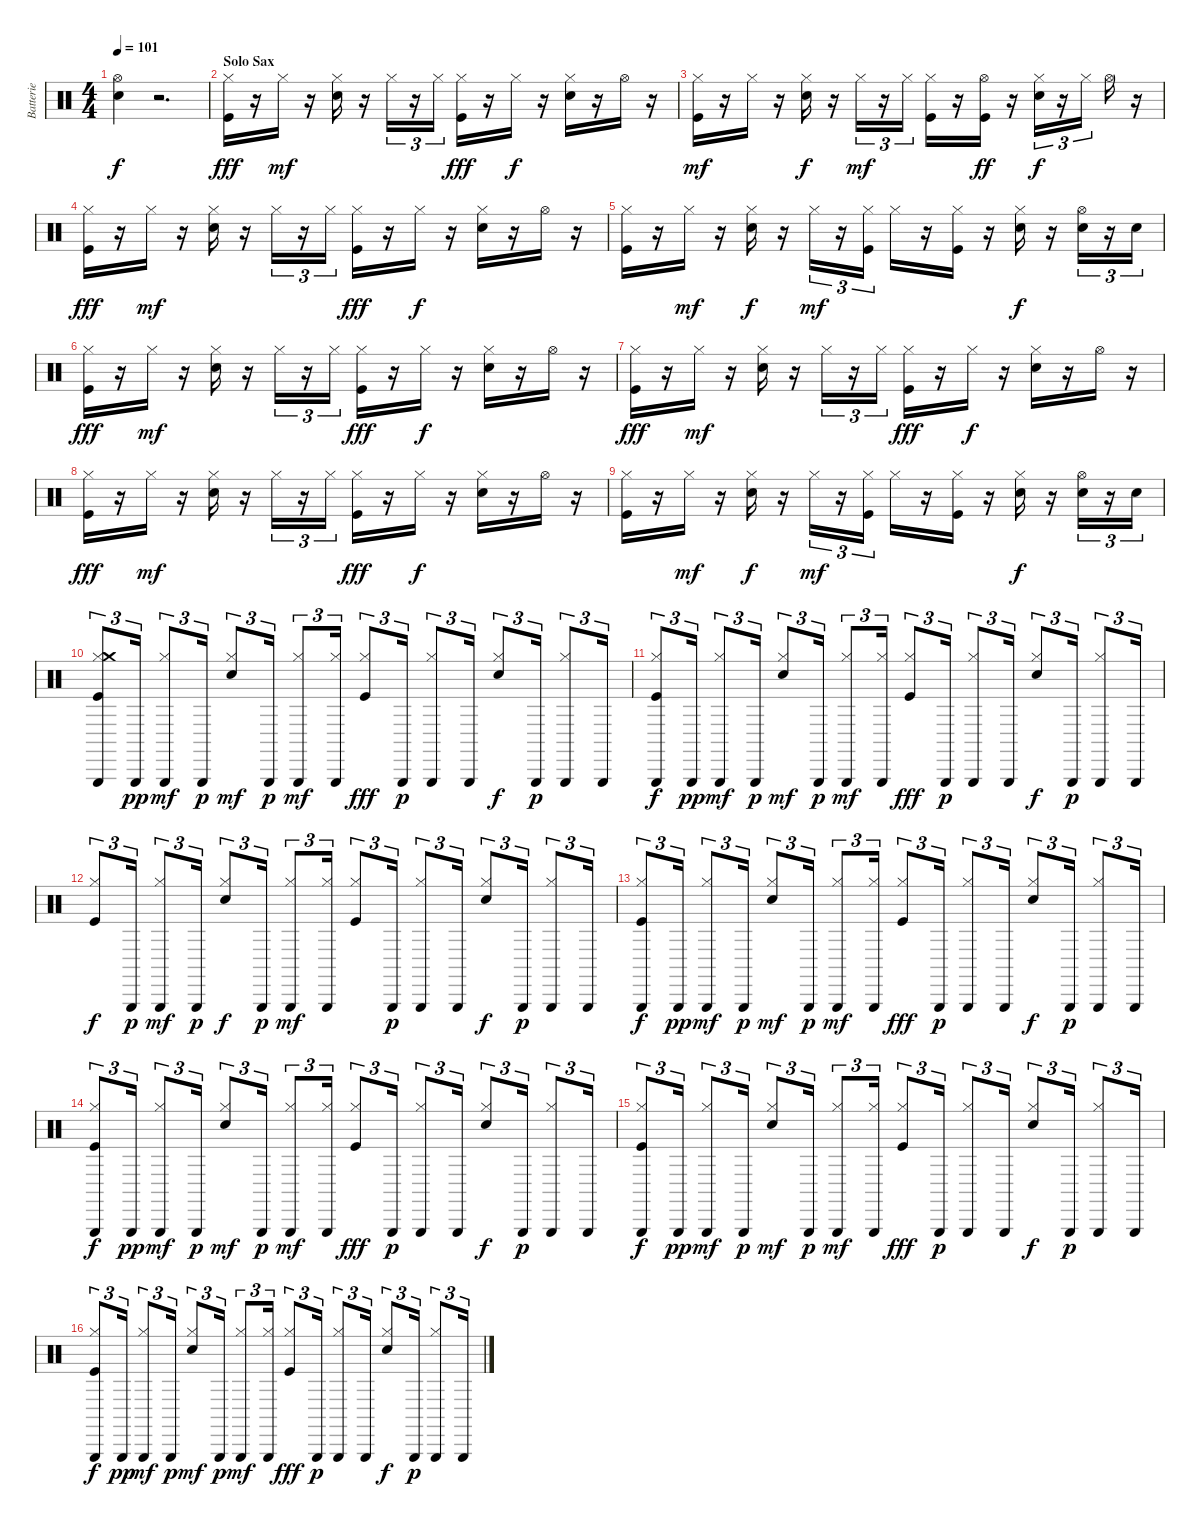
\track ("Batterie" "Batterie") {instrument percussion}
\staff {score}
\articulation defaults
\ts (4 4)
\tempo 101
\clef neutral
\ks c
("Electric Snare (hit)" "Hi-Hat (open)").4{dy f} r.2{d} |
\section ("" "Solo Sax")
("Kick (hit)" "Hi-Hat (closed)").16{dy fff} r.16 "Hi-Hat (closed)".16{dy mf} r.16 ("Electric Snare (hit)" "Hi-Hat (closed)").16 r.16 "Hi-Hat (closed)".16{tu (3 2)} r.16{tu (3 2)} "Hi-Hat (closed)".16{tu (3 2)} ("Kick (hit)" "Hi-Hat (closed)").16{dy fff} r.16 "Hi-Hat (closed)".16{dy f} r.16 ("Electric Snare (hit)" "Hi-Hat (closed)").16 r.16 "Hi-Hat (open)".16 r.16 |
("Kick (hit)" "Hi-Hat (closed)").16{dy mf} r.16 "Hi-Hat (closed)".16 r.16 ("Electric Snare (hit)" "Hi-Hat (closed)").16{dy f} r.16 "Hi-Hat (closed)".16{tu (3 2) dy mf} r.16{tu (3 2)} "Hi-Hat (closed)".16{tu (3 2)} ("Kick (hit)" "Hi-Hat (closed)").16 r.16 ("Hi-Hat (open)" "Kick (hit)").16{dy ff} r.16 ("Electric Snare (hit)" "Hi-Hat (closed)").16{tu (3 2) dy f} r.16{tu (3 2)} "Hi-Hat (closed)".16{tu (3 2)} "Hi-Hat (open)".16 r.16 |
("Kick (hit)" "Hi-Hat (closed)").16{dy fff} r.16 "Hi-Hat (closed)".16{dy mf} r.16 ("Electric Snare (hit)" "Hi-Hat (closed)").16 r.16 "Hi-Hat (closed)".16{tu (3 2)} r.16{tu (3 2)} "Hi-Hat (closed)".16{tu (3 2)} ("Kick (hit)" "Hi-Hat (closed)").16{dy fff} r.16 "Hi-Hat (closed)".16{dy f} r.16 ("Electric Snare (hit)" "Hi-Hat (closed)").16 r.16 "Hi-Hat (open)".16 r.16 |
("Hi-Hat (closed)" "Kick (hit)").16 r.16 "Hi-Hat (closed)".16{dy mf} r.16 ("Electric Snare (hit)" "Hi-Hat (closed)").16{dy f} r.16 "Hi-Hat (closed)".16{tu (3 2) dy mf} r.16{tu (3 2)} ("Kick (hit)" "Hi-Hat (closed)").16{tu (3 2)} "Hi-Hat (closed)".16 r.16 ("Kick (hit)" "Hi-Hat (closed)").16 r.16 ("Electric Snare (hit)" "Hi-Hat (closed)").16{dy f} r.16 ("Electric Snare (hit)" "Hi-Hat (open)").16{tu (3 2)} r.16{tu (3 2)} "Electric Snare (hit)".16{tu (3 2)} |
("Kick (hit)" "Hi-Hat (closed)").16{dy fff} r.16 "Hi-Hat (closed)".16{dy mf} r.16 ("Electric Snare (hit)" "Hi-Hat (closed)").16 r.16 "Hi-Hat (closed)".16{tu (3 2)} r.16{tu (3 2)} "Hi-Hat (closed)".16{tu (3 2)} ("Kick (hit)" "Hi-Hat (closed)").16{dy fff} r.16 "Hi-Hat (closed)".16{dy f} r.16 ("Electric Snare (hit)" "Hi-Hat (closed)").16 r.16 "Hi-Hat (open)".16 r.16 |
("Kick (hit)" "Hi-Hat (closed)").16{dy fff} r.16 "Hi-Hat (closed)".16{dy mf} r.16 ("Electric Snare (hit)" "Hi-Hat (closed)").16 r.16 "Hi-Hat (closed)".16{tu (3 2)} r.16{tu (3 2)} "Hi-Hat (closed)".16{tu (3 2)} ("Kick (hit)" "Hi-Hat (closed)").16{dy fff} r.16 "Hi-Hat (closed)".16{dy f} r.16 ("Electric Snare (hit)" "Hi-Hat (closed)").16 r.16 "Hi-Hat (open)".16 r.16 |
("Kick (hit)" "Hi-Hat (closed)").16{dy fff} r.16 "Hi-Hat (closed)".16{dy mf} r.16 ("Electric Snare (hit)" "Hi-Hat (closed)").16 r.16 "Hi-Hat (closed)".16{tu (3 2)} r.16{tu (3 2)} "Hi-Hat (closed)".16{tu (3 2)} ("Kick (hit)" "Hi-Hat (closed)").16{dy fff} r.16 "Hi-Hat (closed)".16{dy f} r.16 ("Electric Snare (hit)" "Hi-Hat (closed)").16 r.16 "Hi-Hat (open)".16 r.16 |
("Hi-Hat (closed)" "Kick (hit)").16 r.16 "Hi-Hat (closed)".16{dy mf} r.16 ("Electric Snare (hit)" "Hi-Hat (closed)").16{dy f} r.16 "Hi-Hat (closed)".16{tu (3 2) dy mf} r.16{tu (3 2)} ("Kick (hit)" "Hi-Hat (closed)").16{tu (3 2)} "Hi-Hat (closed)".16 r.16 ("Kick (hit)" "Hi-Hat (closed)").16 r.16 ("Electric Snare (hit)" "Hi-Hat (closed)").16{dy f} r.16 ("Electric Snare (hit)" "Hi-Hat (open)").16{tu (3 2)} r.16{tu (3 2)} "Electric Snare (hit)".16{tu (3 2)} |
("Triangle (hit)" "Kick (hit)" "Hi-Hat (closed)" "Crash medium (hit)").8{tu (3 2)} "Triangle (hit)".16{tu (3 2) dy pp} ("Triangle (hit)" "Hi-Hat (closed)").8{tu (3 2) dy mf} "Triangle (hit)".16{tu (3 2) dy p} ("Electric Snare (hit)" "Hi-Hat (closed)").8{tu (3 2) dy mf} "Triangle (hit)".16{tu (3 2) dy p} ("Triangle (hit)" "Hi-Hat (closed)").8{tu (3 2) dy mf} ("Triangle (hit)" "Hi-Hat (closed)").16{tu (3 2)} ("Kick (hit)" "Hi-Hat (closed)").8{tu (3 2) dy fff} "Triangle (hit)".16{tu (3 2) dy p} ("Triangle (hit)" "Hi-Hat (closed)").8{tu (3 2)} "Triangle (hit)".16{tu (3 2)} ("Electric Snare (hit)" "Hi-Hat (closed)").8{tu (3 2) dy f} "Triangle (hit)".16{tu (3 2) dy p} ("Triangle (hit)" "Hi-Hat (closed)").8{tu (3 2)} "Triangle (hit)".16{tu (3 2)} |
("Triangle (hit)" "Kick (hit)" "Hi-Hat (closed)").8{tu (3 2) dy f} "Triangle (hit)".16{tu (3 2) dy pp} ("Triangle (hit)" "Hi-Hat (closed)").8{tu (3 2) dy mf} "Triangle (hit)".16{tu (3 2) dy p} ("Electric Snare (hit)" "Hi-Hat (closed)").8{tu (3 2) dy mf} "Triangle (hit)".16{tu (3 2) dy p} ("Triangle (hit)" "Hi-Hat (closed)").8{tu (3 2) dy mf} ("Triangle (hit)" "Hi-Hat (closed)").16{tu (3 2)} ("Kick (hit)" "Hi-Hat (closed)").8{tu (3 2) dy fff} "Triangle (hit)".16{tu (3 2) dy p} ("Triangle (hit)" "Hi-Hat (closed)").8{tu (3 2)} "Triangle (hit)".16{tu (3 2)} ("Electric Snare (hit)" "Hi-Hat (closed)").8{tu (3 2) dy f} "Triangle (hit)".16{tu (3 2) dy p} ("Triangle (hit)" "Hi-Hat (closed)").8{tu (3 2)} "Triangle (hit)".16{tu (3 2)} |
("Kick (hit)" "Hi-Hat (closed)").8{tu (3 2) dy f} "Triangle (hit)".16{tu (3 2) dy p} ("Triangle (hit)" "Hi-Hat (closed)").8{tu (3 2) dy mf} "Triangle (hit)".16{tu (3 2) dy p} ("Electric Snare (hit)" "Hi-Hat (closed)").8{tu (3 2) dy f} "Triangle (hit)".16{tu (3 2) dy p} ("Triangle (hit)" "Hi-Hat (closed)").8{tu (3 2) dy mf} ("Triangle (hit)" "Hi-Hat (closed)").16{tu (3 2)} ("Kick (hit)" "Hi-Hat (closed)").8{tu (3 2)} "Triangle (hit)".16{tu (3 2) dy p} ("Triangle (hit)" "Hi-Hat (closed)").8{tu (3 2)} "Triangle (hit)".16{tu (3 2)} ("Electric Snare (hit)" "Hi-Hat (closed)").8{tu (3 2) dy f} "Triangle (hit)".16{tu (3 2) dy p} ("Triangle (hit)" "Hi-Hat (closed)").8{tu (3 2)} "Triangle (hit)".16{tu (3 2)} |
("Triangle (hit)" "Kick (hit)" "Hi-Hat (closed)").8{tu (3 2) dy f} "Triangle (hit)".16{tu (3 2) dy pp} ("Triangle (hit)" "Hi-Hat (closed)").8{tu (3 2) dy mf} "Triangle (hit)".16{tu (3 2) dy p} ("Electric Snare (hit)" "Hi-Hat (closed)").8{tu (3 2) dy mf} "Triangle (hit)".16{tu (3 2) dy p} ("Triangle (hit)" "Hi-Hat (closed)").8{tu (3 2) dy mf} ("Triangle (hit)" "Hi-Hat (closed)").16{tu (3 2)} ("Kick (hit)" "Hi-Hat (closed)").8{tu (3 2) dy fff} "Triangle (hit)".16{tu (3 2) dy p} ("Triangle (hit)" "Hi-Hat (closed)").8{tu (3 2)} "Triangle (hit)".16{tu (3 2)} ("Electric Snare (hit)" "Hi-Hat (closed)").8{tu (3 2) dy f} "Triangle (hit)".16{tu (3 2) dy p} ("Triangle (hit)" "Hi-Hat (closed)").8{tu (3 2)} "Triangle (hit)".16{tu (3 2)} |
("Triangle (hit)" "Kick (hit)" "Hi-Hat (closed)").8{tu (3 2) dy f} "Triangle (hit)".16{tu (3 2) dy pp} ("Triangle (hit)" "Hi-Hat (closed)").8{tu (3 2) dy mf} "Triangle (hit)".16{tu (3 2) dy p} ("Electric Snare (hit)" "Hi-Hat (closed)").8{tu (3 2) dy mf} "Triangle (hit)".16{tu (3 2) dy p} ("Triangle (hit)" "Hi-Hat (closed)").8{tu (3 2) dy mf} ("Triangle (hit)" "Hi-Hat (closed)").16{tu (3 2)} ("Kick (hit)" "Hi-Hat (closed)").8{tu (3 2) dy fff} "Triangle (hit)".16{tu (3 2) dy p} ("Triangle (hit)" "Hi-Hat (closed)").8{tu (3 2)} "Triangle (hit)".16{tu (3 2)} ("Electric Snare (hit)" "Hi-Hat (closed)").8{tu (3 2) dy f} "Triangle (hit)".16{tu (3 2) dy p} ("Triangle (hit)" "Hi-Hat (closed)").8{tu (3 2)} "Triangle (hit)".16{tu (3 2)} |
("Triangle (hit)" "Kick (hit)" "Hi-Hat (closed)").8{tu (3 2) dy f} "Triangle (hit)".16{tu (3 2) dy pp} ("Triangle (hit)" "Hi-Hat (closed)").8{tu (3 2) dy mf} "Triangle (hit)".16{tu (3 2) dy p} ("Electric Snare (hit)" "Hi-Hat (closed)").8{tu (3 2) dy mf} "Triangle (hit)".16{tu (3 2) dy p} ("Triangle (hit)" "Hi-Hat (closed)").8{tu (3 2) dy mf} ("Triangle (hit)" "Hi-Hat (closed)").16{tu (3 2)} ("Kick (hit)" "Hi-Hat (closed)").8{tu (3 2) dy fff} "Triangle (hit)".16{tu (3 2) dy p} ("Triangle (hit)" "Hi-Hat (closed)").8{tu (3 2)} "Triangle (hit)".16{tu (3 2)} ("Electric Snare (hit)" "Hi-Hat (closed)").8{tu (3 2) dy f} "Triangle (hit)".16{tu (3 2) dy p} ("Triangle (hit)" "Hi-Hat (closed)").8{tu (3 2)} "Triangle (hit)".16{tu (3 2)} |
("Triangle (hit)" "Kick (hit)" "Hi-Hat (closed)").8{tu (3 2) dy f} "Triangle (hit)".16{tu (3 2) dy pp} ("Triangle (hit)" "Hi-Hat (closed)").8{tu (3 2) dy mf} "Triangle (hit)".16{tu (3 2) dy p} ("Electric Snare (hit)" "Hi-Hat (closed)").8{tu (3 2) dy mf} "Triangle (hit)".16{tu (3 2) dy p} ("Triangle (hit)" "Hi-Hat (closed)").8{tu (3 2) dy mf} ("Triangle (hit)" "Hi-Hat (closed)").16{tu (3 2)} ("Kick (hit)" "Hi-Hat (closed)").8{tu (3 2) dy fff} "Triangle (hit)".16{tu (3 2) dy p} ("Triangle (hit)" "Hi-Hat (closed)").8{tu (3 2)} "Triangle (hit)".16{tu (3 2)} ("Electric Snare (hit)" "Hi-Hat (closed)").8{tu (3 2) dy f} "Triangle (hit)".16{tu (3 2) dy p} ("Triangle (hit)" "Hi-Hat (closed)").8{tu (3 2)} "Triangle (hit)".16{tu (3 2)}
